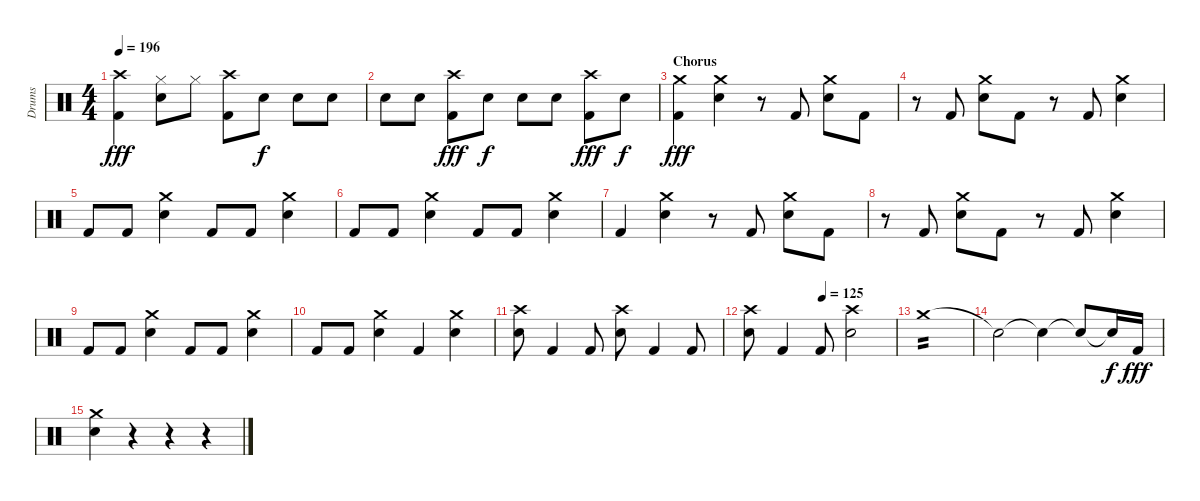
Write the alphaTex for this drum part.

\track ("Drums" "Drums") {instrument percussion}
\staff {score}
\articulation defaults
\ts (4 4)
\tempo 196
\clef neutral
\ks c
("Crash high (hit)" "Kick (hit) 2").4{dy fff} ("Hi-Hat (closed)" "Snare (hit) 2").8 "Hi-Hat (closed)".8 ("Crash high (hit)" "Kick (hit) 2").8 "Snare (hit) 2".8{dy f} "Snare (hit) 2".8 "Snare (hit) 2".8 |
"Snare (hit) 2".8 "Snare (hit) 2".8 ("Crash high (hit)" "Kick (hit) 2").8{dy fff} "Snare (hit) 2".8{dy f} "Snare (hit) 2".8 "Snare (hit) 2".8 ("Crash high (hit)" "Kick (hit) 2").8{dy fff} "Snare (hit) 2".8{dy f} |
\section ("" "Chorus")
("Crash medium (hit)" "Kick (hit) 2").4{dy fff} ("Crash medium (hit)" "Snare (hit) 2").4 r.8 "Kick (hit) 2".8 ("Crash medium (hit)" "Snare (hit) 2").8 "Kick (hit) 2".8 |
r.8 "Kick (hit) 2".8 ("Crash medium (hit)" "Snare (hit) 2").8 "Kick (hit) 2".8 r.8 "Kick (hit) 2".8 ("Crash medium (hit)" "Snare (hit) 2").4 |
"Kick (hit) 2".8 "Kick (hit) 2".8 ("Crash medium (hit)" "Snare (hit) 2").4 "Kick (hit) 2".8 "Kick (hit) 2".8 ("Crash medium (hit)" "Snare (hit) 2").4 |
"Kick (hit) 2".8 "Kick (hit) 2".8 ("Crash medium (hit)" "Snare (hit) 2").4 "Kick (hit) 2".8 "Kick (hit) 2".8 ("Crash medium (hit)" "Snare (hit) 2").4 |
"Kick (hit) 2".4 ("Crash medium (hit)" "Snare (hit) 2").4 r.8 "Kick (hit) 2".8 ("Crash medium (hit)" "Snare (hit) 2").8 "Kick (hit) 2".8 |
r.8 "Kick (hit) 2".8 ("Crash medium (hit)" "Snare (hit) 2").8 "Kick (hit) 2".8 r.8 "Kick (hit) 2".8 ("Crash medium (hit)" "Snare (hit) 2").4 |
"Kick (hit) 2".8 "Kick (hit) 2".8 ("Crash medium (hit)" "Snare (hit) 2").4 "Kick (hit) 2".8 "Kick (hit) 2".8 ("Crash medium (hit)" "Snare (hit) 2").4 |
"Kick (hit) 2".8 "Kick (hit) 2".8 ("Crash medium (hit)" "Snare (hit) 2").4 "Kick (hit) 2".4 ("Crash medium (hit)" "Snare (hit) 2").4 |
("Crash high (hit)" "Snare (hit) 2").8 "Kick (hit) 2".4 "Kick (hit) 2".8 ("Crash high (hit)" "Snare (hit) 2").8 "Kick (hit) 2".4 "Kick (hit) 2".8 |
\tempo (125 0.5)
("Crash high (hit)" "Snare (hit) 2").8 "Kick (hit) 2".4 "Kick (hit) 2".8 ("Crash high (hit)" "Snare (hit) 2").2 |
"Crash medium (hit)".1{tp 2} |
"Snare (hit)"{t}.2 "Snare (hit)"{t}.4 "Snare (hit)"{t}.8 "Snare (hit)"{t}.16{dy f} "Kick (hit) 2".16{dy fff} |
("Crash medium (hit)" "Snare (hit) 2").4 r.4 r.4 r.4
